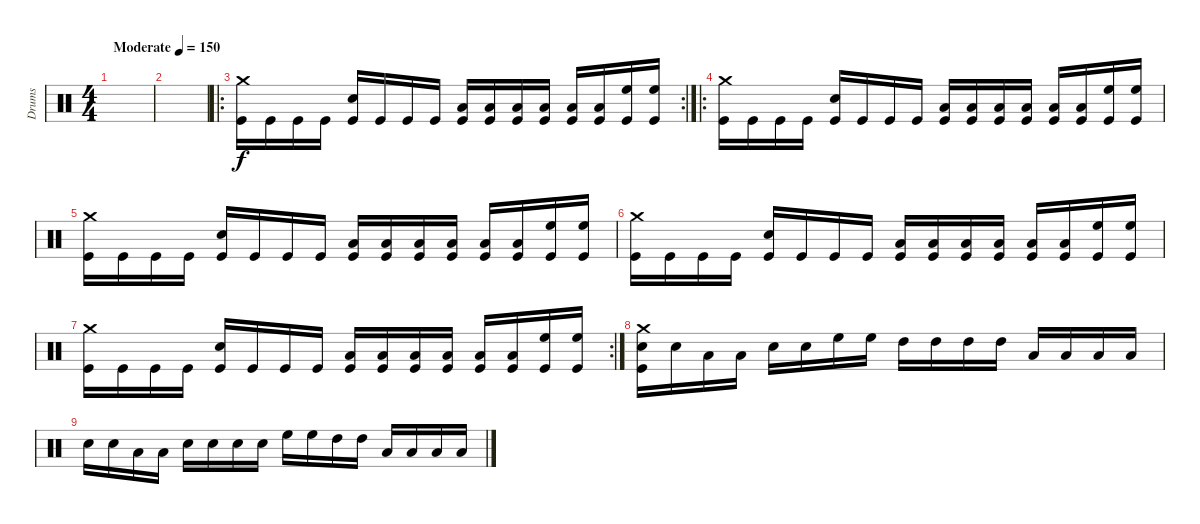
\track ("Drums" "Drums") {instrument percussion}
\staff {score}
\articulation defaults
\ts (4 4)
\tempo (150 "Moderate")
\clef neutral
\ks c
|
|
\ro
\rc 2
("Crash medium (hit)" "Kick (hit)").16 "Kick (hit)".16 "Kick (hit)".16 "Kick (hit)".16 ("Snare (hit) 2" "Kick (hit)").16 "Kick (hit)".16 "Kick (hit)".16 "Kick (hit)".16 ("Low Tom (hit)" "Kick (hit)").16 ("Low Tom (hit)" "Kick (hit)").16 ("Low Tom (hit)" "Kick (hit)").16 ("Low Tom (hit)" "Kick (hit)").16 ("Low Floor Tom (hit)" "Kick (hit)").16 ("Low Floor Tom (hit)" "Kick (hit)").16 ("High Floor Tom (hit)" "Kick (hit)").16 ("High Floor Tom (hit)" "Kick (hit)").16 |
\ro
("Crash medium (hit)" "Kick (hit)").16 "Kick (hit)".16 "Kick (hit)".16 "Kick (hit)".16 ("Snare (hit) 2" "Kick (hit)").16 "Kick (hit)".16 "Kick (hit)".16 "Kick (hit)".16 ("Low Tom (hit)" "Kick (hit)").16 ("Low Tom (hit)" "Kick (hit)").16 ("Low Tom (hit)" "Kick (hit)").16 ("Low Tom (hit)" "Kick (hit)").16 ("Low Floor Tom (hit)" "Kick (hit)").16 ("Low Floor Tom (hit)" "Kick (hit)").16 ("High Floor Tom (hit)" "Kick (hit)").16 ("High Floor Tom (hit)" "Kick (hit)").16 |
("Crash medium (hit)" "Kick (hit)").16 "Kick (hit)".16 "Kick (hit)".16 "Kick (hit)".16 ("Snare (hit) 2" "Kick (hit)").16 "Kick (hit)".16 "Kick (hit)".16 "Kick (hit)".16 ("Low Tom (hit)" "Kick (hit)").16 ("Low Tom (hit)" "Kick (hit)").16 ("Low Tom (hit)" "Kick (hit)").16 ("Low Tom (hit)" "Kick (hit)").16 ("Low Floor Tom (hit)" "Kick (hit)").16 ("Low Floor Tom (hit)" "Kick (hit)").16 ("High Floor Tom (hit)" "Kick (hit)").16 ("High Floor Tom (hit)" "Kick (hit)").16 |
("Crash medium (hit)" "Kick (hit)").16 "Kick (hit)".16 "Kick (hit)".16 "Kick (hit)".16 ("Snare (hit) 2" "Kick (hit)").16 "Kick (hit)".16 "Kick (hit)".16 "Kick (hit)".16 ("Low Tom (hit)" "Kick (hit)").16 ("Low Tom (hit)" "Kick (hit)").16 ("Low Tom (hit)" "Kick (hit)").16 ("Low Tom (hit)" "Kick (hit)").16 ("Low Floor Tom (hit)" "Kick (hit)").16 ("Low Floor Tom (hit)" "Kick (hit)").16 ("High Floor Tom (hit)" "Kick (hit)").16 ("High Floor Tom (hit)" "Kick (hit)").16 |
\rc 2
("Crash medium (hit)" "Kick (hit)").16 "Kick (hit)".16 "Kick (hit)".16 "Kick (hit)".16 ("Snare (hit) 2" "Kick (hit)").16 "Kick (hit)".16 "Kick (hit)".16 "Kick (hit)".16 ("Low Tom (hit)" "Kick (hit)").16 ("Low Tom (hit)" "Kick (hit)").16 ("Low Tom (hit)" "Kick (hit)").16 ("Low Tom (hit)" "Kick (hit)").16 ("Low Floor Tom (hit)" "Kick (hit)").16 ("Low Floor Tom (hit)" "Kick (hit)").16 ("High Floor Tom (hit)" "Kick (hit)").16 ("High Floor Tom (hit)" "Kick (hit)").16 |
("Crash medium (hit)" "Snare (hit) 2" "Kick (hit)").16 "Snare (hit) 2".16 "Low Floor Tom (hit)".16 "Low Floor Tom (hit)".16 "Snare (hit) 2".16 "Snare (hit) 2".16 "High Floor Tom (hit)".16 "High Floor Tom (hit)".16 "High Tom (hit)".16 "High Tom (hit)".16 "High Tom (hit)".16 "High Tom (hit)".16 "Low Tom (hit)".16 "Low Tom (hit)".16 "Low Tom (hit)".16 "Low Tom (hit)".16 |
"Snare (hit) 2".16 "Snare (hit) 2".16 "Low Tom (hit)".16 "Low Tom (hit)".16 "Snare (hit) 2".16 "Snare (hit) 2".16 "Snare (hit) 2".16 "Snare (hit) 2".16 "High Floor Tom (hit)".16 "High Floor Tom (hit)".16 "High Tom (hit)".16 "High Tom (hit)".16 "Low Tom (hit)".16 "Low Tom (hit)".16 "Low Floor Tom (hit)".16 "Low Floor Tom (hit)".16
